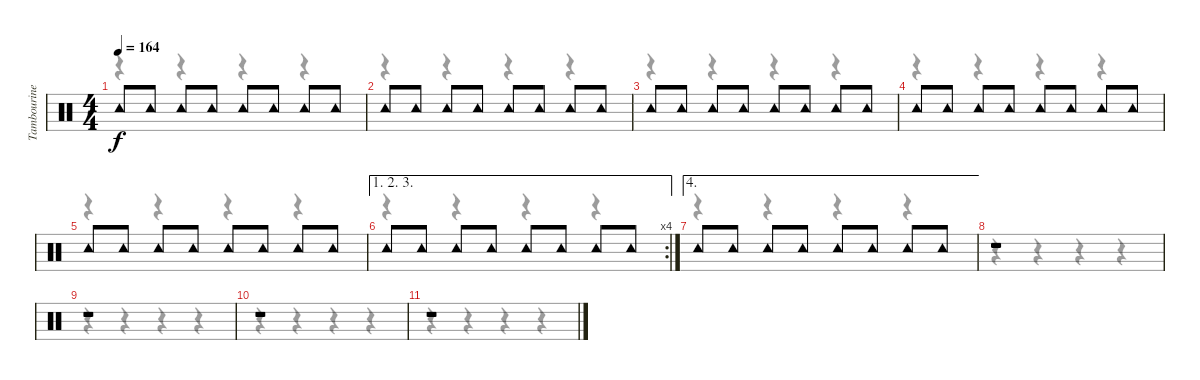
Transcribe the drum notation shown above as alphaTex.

\track ("Tambourine" "Tambourine") {instrument percussion}
\staff {score}
\articulation defaults
\voice
\ts (4 4)
\tempo 164
\clef neutral
\ks c "Tambourine (hit)".8{dy f} "Tambourine (hit)".8 "Tambourine (hit)".8 "Tambourine (hit)".8 "Tambourine (hit)".8 "Tambourine (hit)".8 "Tambourine (hit)".8 "Tambourine (hit)".8
|
"Tambourine (hit)".8 "Tambourine (hit)".8 "Tambourine (hit)".8 "Tambourine (hit)".8 "Tambourine (hit)".8 "Tambourine (hit)".8 "Tambourine (hit)".8 "Tambourine (hit)".8 |
"Tambourine (hit)".8 "Tambourine (hit)".8 "Tambourine (hit)".8 "Tambourine (hit)".8 "Tambourine (hit)".8 "Tambourine (hit)".8 "Tambourine (hit)".8 "Tambourine (hit)".8 |
"Tambourine (hit)".8 "Tambourine (hit)".8 "Tambourine (hit)".8 "Tambourine (hit)".8 "Tambourine (hit)".8 "Tambourine (hit)".8 "Tambourine (hit)".8 "Tambourine (hit)".8 |
"Tambourine (hit)".8 "Tambourine (hit)".8 "Tambourine (hit)".8 "Tambourine (hit)".8 "Tambourine (hit)".8 "Tambourine (hit)".8 "Tambourine (hit)".8 "Tambourine (hit)".8 |
\ae (1 2 3)
\rc 4 "Tambourine (hit)".8 "Tambourine (hit)".8 "Tambourine (hit)".8 "Tambourine (hit)".8 "Tambourine (hit)".8 "Tambourine (hit)".8 "Tambourine (hit)".8 "Tambourine (hit)".8
|
\ae 4 "Tambourine (hit)".8 "Tambourine (hit)".8 "Tambourine (hit)".8 "Tambourine (hit)".8 "Tambourine (hit)".8 "Tambourine (hit)".8 "Tambourine (hit)".8 "Tambourine (hit)".8
|
r.1 |
r.1 |
r.1 |
r.1
\voice
\clef neutral
\ottava regular
\simile none
\ks c
r.4{dy f} r.4 r.4 r.4 |
r.4 r.4 r.4 r.4 |
r.4 r.4 r.4 r.4 |
r.4 r.4 r.4 r.4 |
r.4 r.4 r.4 r.4 |
r.4 r.4 r.4 r.4 |
r.4 r.4 r.4 r.4 |
r.4 r.4 r.4 r.4 |
r.4 r.4 r.4 r.4 |
r.4 r.4 r.4 r.4 |
r.4 r.4 r.4 r.4
